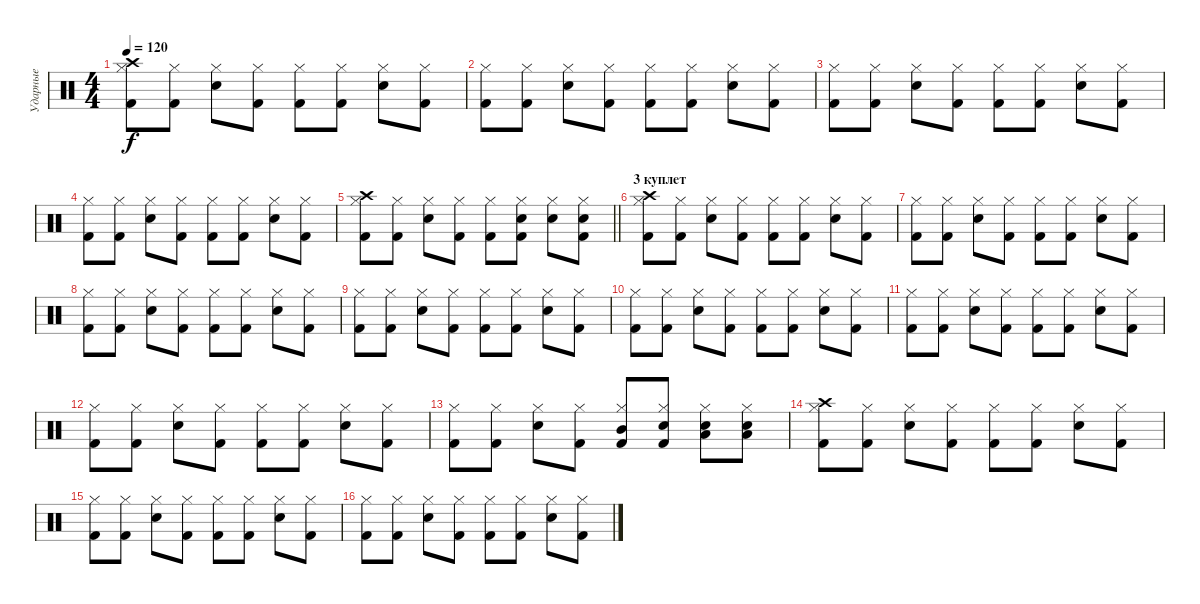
\track ("Ударные" "Ударные") {instrument percussion}
\staff {score}
\articulation defaults
\ts (4 4)
\tempo 120
\clef neutral
\ks c
("Kick (hit) 2" "Hi-Hat (closed)" "Crash high (hit)").8{dy f} ("Kick (hit) 2" "Hi-Hat (closed)").8 ("Snare (hit) 2" "Hi-Hat (closed)").8 ("Kick (hit) 2" "Hi-Hat (closed)").8 ("Kick (hit) 2" "Hi-Hat (closed)").8 ("Kick (hit) 2" "Hi-Hat (closed)").8 ("Snare (hit) 2" "Hi-Hat (closed)").8 ("Kick (hit) 2" "Hi-Hat (closed)").8 |
("Kick (hit) 2" "Hi-Hat (closed)").8 ("Kick (hit) 2" "Hi-Hat (closed)").8 ("Snare (hit) 2" "Hi-Hat (closed)").8 ("Kick (hit) 2" "Hi-Hat (closed)").8 ("Kick (hit) 2" "Hi-Hat (closed)").8 ("Kick (hit) 2" "Hi-Hat (closed)").8 ("Snare (hit) 2" "Hi-Hat (closed)").8 ("Kick (hit) 2" "Hi-Hat (closed)").8 |
("Kick (hit) 2" "Hi-Hat (closed)").8 ("Kick (hit) 2" "Hi-Hat (closed)").8 ("Snare (hit) 2" "Hi-Hat (closed)").8 ("Kick (hit) 2" "Hi-Hat (closed)").8 ("Kick (hit) 2" "Hi-Hat (closed)").8 ("Kick (hit) 2" "Hi-Hat (closed)").8 ("Snare (hit) 2" "Hi-Hat (closed)").8 ("Kick (hit) 2" "Hi-Hat (closed)").8 |
("Kick (hit) 2" "Hi-Hat (closed)").8 ("Kick (hit) 2" "Hi-Hat (closed)").8 ("Snare (hit) 2" "Hi-Hat (closed)").8 ("Kick (hit) 2" "Hi-Hat (closed)").8 ("Kick (hit) 2" "Hi-Hat (closed)").8 ("Kick (hit) 2" "Hi-Hat (closed)").8 ("Snare (hit) 2" "Hi-Hat (closed)").8 ("Kick (hit) 2" "Hi-Hat (closed)").8 |
\barLineRight lightlight
("Kick (hit) 2" "Hi-Hat (closed)" "Crash high (hit)").8 ("Kick (hit) 2" "Hi-Hat (closed)").8 ("Snare (hit) 2" "Hi-Hat (closed)").8 ("Kick (hit) 2" "Hi-Hat (closed)").8 ("Kick (hit) 2" "Hi-Hat (closed)").8 ("Kick (hit) 2" "Hi-Hat (closed)" "Snare (hit) 2").8 ("Snare (hit) 2" "Hi-Hat (closed)").8 ("Kick (hit) 2" "Hi-Hat (closed)" "Snare (hit) 2").8 |
\section ("" "3 куплет")
("Kick (hit) 2" "Hi-Hat (closed)" "Crash high (hit)").8 ("Kick (hit) 2" "Hi-Hat (closed)").8 ("Snare (hit) 2" "Hi-Hat (closed)").8 ("Kick (hit) 2" "Hi-Hat (closed)").8 ("Kick (hit) 2" "Hi-Hat (closed)").8 ("Kick (hit) 2" "Hi-Hat (closed)").8 ("Snare (hit) 2" "Hi-Hat (closed)").8 ("Kick (hit) 2" "Hi-Hat (closed)").8 |
("Kick (hit) 2" "Hi-Hat (closed)").8 ("Kick (hit) 2" "Hi-Hat (closed)").8 ("Snare (hit) 2" "Hi-Hat (closed)").8 ("Kick (hit) 2" "Hi-Hat (closed)").8 ("Kick (hit) 2" "Hi-Hat (closed)").8 ("Kick (hit) 2" "Hi-Hat (closed)").8 ("Snare (hit) 2" "Hi-Hat (closed)").8 ("Kick (hit) 2" "Hi-Hat (closed)").8 |
("Kick (hit) 2" "Hi-Hat (closed)").8 ("Kick (hit) 2" "Hi-Hat (closed)").8 ("Snare (hit) 2" "Hi-Hat (closed)").8 ("Kick (hit) 2" "Hi-Hat (closed)").8 ("Kick (hit) 2" "Hi-Hat (closed)").8 ("Kick (hit) 2" "Hi-Hat (closed)").8 ("Snare (hit) 2" "Hi-Hat (closed)").8 ("Kick (hit) 2" "Hi-Hat (closed)").8 |
("Kick (hit) 2" "Hi-Hat (closed)").8 ("Kick (hit) 2" "Hi-Hat (closed)").8 ("Snare (hit) 2" "Hi-Hat (closed)").8 ("Kick (hit) 2" "Hi-Hat (closed)").8 ("Kick (hit) 2" "Hi-Hat (closed)").8 ("Kick (hit) 2" "Hi-Hat (closed)").8 ("Snare (hit) 2" "Hi-Hat (closed)").8 ("Kick (hit) 2" "Hi-Hat (closed)").8 |
("Kick (hit) 2" "Hi-Hat (closed)").8 ("Kick (hit) 2" "Hi-Hat (closed)").8 ("Snare (hit) 2" "Hi-Hat (closed)").8 ("Kick (hit) 2" "Hi-Hat (closed)").8 ("Kick (hit) 2" "Hi-Hat (closed)").8 ("Kick (hit) 2" "Hi-Hat (closed)").8 ("Snare (hit) 2" "Hi-Hat (closed)").8 ("Kick (hit) 2" "Hi-Hat (closed)").8 |
("Kick (hit) 2" "Hi-Hat (closed)").8 ("Kick (hit) 2" "Hi-Hat (closed)").8 ("Snare (hit) 2" "Hi-Hat (closed)").8 ("Kick (hit) 2" "Hi-Hat (closed)").8 ("Kick (hit) 2" "Hi-Hat (closed)").8 ("Kick (hit) 2" "Hi-Hat (closed)").8 ("Snare (hit) 2" "Hi-Hat (closed)").8 ("Kick (hit) 2" "Hi-Hat (closed)").8 |
("Kick (hit) 2" "Hi-Hat (closed)").8 ("Kick (hit) 2" "Hi-Hat (closed)").8 ("Snare (hit) 2" "Hi-Hat (closed)").8 ("Kick (hit) 2" "Hi-Hat (closed)").8 ("Kick (hit) 2" "Hi-Hat (closed)").8 ("Kick (hit) 2" "Hi-Hat (closed)").8 ("Snare (hit) 2" "Hi-Hat (closed)").8 ("Kick (hit) 2" "Hi-Hat (closed)").8 |
("Kick (hit) 2" "Hi-Hat (closed)").8 ("Kick (hit) 2" "Hi-Hat (closed)").8 ("Snare (hit) 2" "Hi-Hat (closed)").8 ("Kick (hit) 2" "Hi-Hat (closed)").8 ("Kick (hit) 2" "Hi-Hat (closed)" "Mid Tom (hit)").8 ("Kick (hit) 2" "Hi-Hat (closed)" "Snare (hit) 2").8 ("Snare (hit) 2" "Hi-Hat (closed)" "Low Tom (hit)").8 ("Snare (hit) 2" "Hi-Hat (closed)" "Low Floor Tom (hit)").8 |
("Kick (hit) 2" "Hi-Hat (closed)" "Crash high (hit)").8 ("Kick (hit) 2" "Hi-Hat (closed)").8 ("Snare (hit) 2" "Hi-Hat (closed)").8 ("Kick (hit) 2" "Hi-Hat (closed)").8 ("Kick (hit) 2" "Hi-Hat (closed)").8 ("Kick (hit) 2" "Hi-Hat (closed)").8 ("Snare (hit) 2" "Hi-Hat (closed)").8 ("Kick (hit) 2" "Hi-Hat (closed)").8 |
("Kick (hit) 2" "Hi-Hat (closed)").8 ("Kick (hit) 2" "Hi-Hat (closed)").8 ("Snare (hit) 2" "Hi-Hat (closed)").8 ("Kick (hit) 2" "Hi-Hat (closed)").8 ("Kick (hit) 2" "Hi-Hat (closed)").8 ("Kick (hit) 2" "Hi-Hat (closed)").8 ("Snare (hit) 2" "Hi-Hat (closed)").8 ("Kick (hit) 2" "Hi-Hat (closed)").8 |
("Kick (hit) 2" "Hi-Hat (closed)").8 ("Kick (hit) 2" "Hi-Hat (closed)").8 ("Snare (hit) 2" "Hi-Hat (closed)").8 ("Kick (hit) 2" "Hi-Hat (closed)").8 ("Kick (hit) 2" "Hi-Hat (closed)").8 ("Kick (hit) 2" "Hi-Hat (closed)").8 ("Snare (hit) 2" "Hi-Hat (closed)").8 ("Kick (hit) 2" "Hi-Hat (closed)").8
